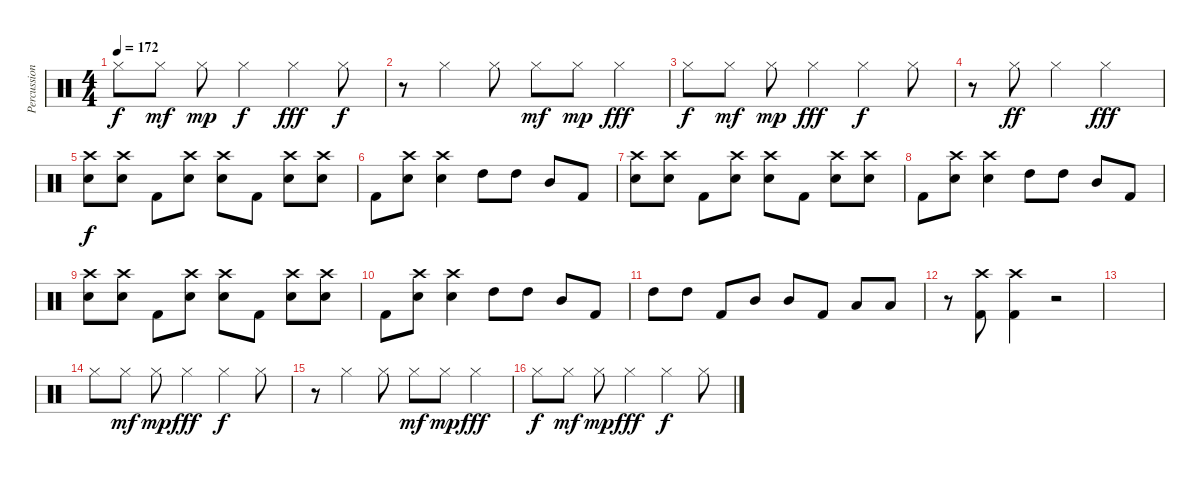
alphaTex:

\track ("Percussion" "Percussion") {solo instrument percussion}
\staff {score}
\articulation defaults
\ts (4 4)
\tempo 172
\clef neutral
\ks c "Hi-Hat (closed)".8{dy f} "Hi-Hat (closed)".8{dy mf} "Hi-Hat (closed)".8{dy mp} "Hi-Hat (closed)".4{dy f} "Hi-Hat (closed)".4{dy fff} "Hi-Hat (closed)".8{dy f}
|
r.8 "Hi-Hat (closed)".4 "Hi-Hat (closed)".8 "Hi-Hat (closed)".8{dy mf} "Hi-Hat (closed)".8{dy mp} "Hi-Hat (closed)".4{dy fff} |
"Hi-Hat (closed)".8{dy f} "Hi-Hat (closed)".8{dy mf} "Hi-Hat (closed)".8{dy mp} "Hi-Hat (closed)".4{dy fff} "Hi-Hat (closed)".4{dy f} "Hi-Hat (closed)".8 |
r.8 "Hi-Hat (closed)".8{dy ff} "Hi-Hat (closed)".4 "Hi-Hat (closed)".2{dy fff} |
("Crash high (hit)" "Snare (hit) 2").8{dy f} ("Crash high (hit)" "Snare (hit) 2").8 "Kick (hit) 2".8 ("Crash high (hit)" "Snare (hit) 2").8 ("Crash high (hit)" "Snare (hit) 2").8 "Kick (hit) 2".8 ("Crash high (hit)" "Snare (hit) 2").8 ("Crash high (hit)" "Snare (hit) 2").8 |
"Kick (hit) 2".8 ("Crash high (hit)" "Snare (hit) 2").8 ("Crash high (hit)" "Snare (hit) 2").4 "High Tom (hit)".8 "High Tom (hit)".8 "Mid Tom (hit)".8 "Kick (hit) 2".8 |
("Crash high (hit)" "Snare (hit) 2").8 ("Crash high (hit)" "Snare (hit) 2").8 "Kick (hit) 2".8 ("Crash high (hit)" "Snare (hit) 2").8 ("Crash high (hit)" "Snare (hit) 2").8 "Kick (hit) 2".8 ("Crash high (hit)" "Snare (hit) 2").8 ("Crash high (hit)" "Snare (hit) 2").8 |
"Kick (hit) 2".8 ("Crash high (hit)" "Snare (hit) 2").8 ("Crash high (hit)" "Snare (hit) 2").4 "High Tom (hit)".8 "High Tom (hit)".8 "Mid Tom (hit)".8 "Kick (hit) 2".8 |
("Crash high (hit)" "Snare (hit) 2").8 ("Crash high (hit)" "Snare (hit) 2").8 "Kick (hit) 2".8 ("Crash high (hit)" "Snare (hit) 2").8 ("Crash high (hit)" "Snare (hit) 2").8 "Kick (hit) 2".8 ("Crash high (hit)" "Snare (hit) 2").8 ("Crash high (hit)" "Snare (hit) 2").8 |
"Kick (hit) 2".8 ("Crash high (hit)" "Snare (hit) 2").8 ("Crash high (hit)" "Snare (hit) 2").4 "High Tom (hit)".8 "High Tom (hit)".8 "Mid Tom (hit)".8 "Kick (hit) 2".8 |
"High Tom (hit)".8 "High Tom (hit)".8 "Kick (hit) 2".8 "Mid Tom (hit)".8 "Mid Tom (hit)".8 "Kick (hit) 2".8 "Low Tom (hit)".8 "Low Tom (hit)".8 |
r.8 ("Crash high (hit)" "Kick (hit) 2").8 ("Crash high (hit)" "Kick (hit) 2").4 r.2 |
|
"Hi-Hat (closed)".8 "Hi-Hat (closed)".8{dy mf} "Hi-Hat (closed)".8{dy mp} "Hi-Hat (closed)".4{dy fff} "Hi-Hat (closed)".4{dy f} "Hi-Hat (closed)".8 |
r.8 "Hi-Hat (closed)".4 "Hi-Hat (closed)".8 "Hi-Hat (closed)".8{dy mf} "Hi-Hat (closed)".8{dy mp} "Hi-Hat (closed)".4{dy fff} |
"Hi-Hat (closed)".8{dy f} "Hi-Hat (closed)".8{dy mf} "Hi-Hat (closed)".8{dy mp} "Hi-Hat (closed)".4{dy fff} "Hi-Hat (closed)".4{dy f} "Hi-Hat (closed)".8
